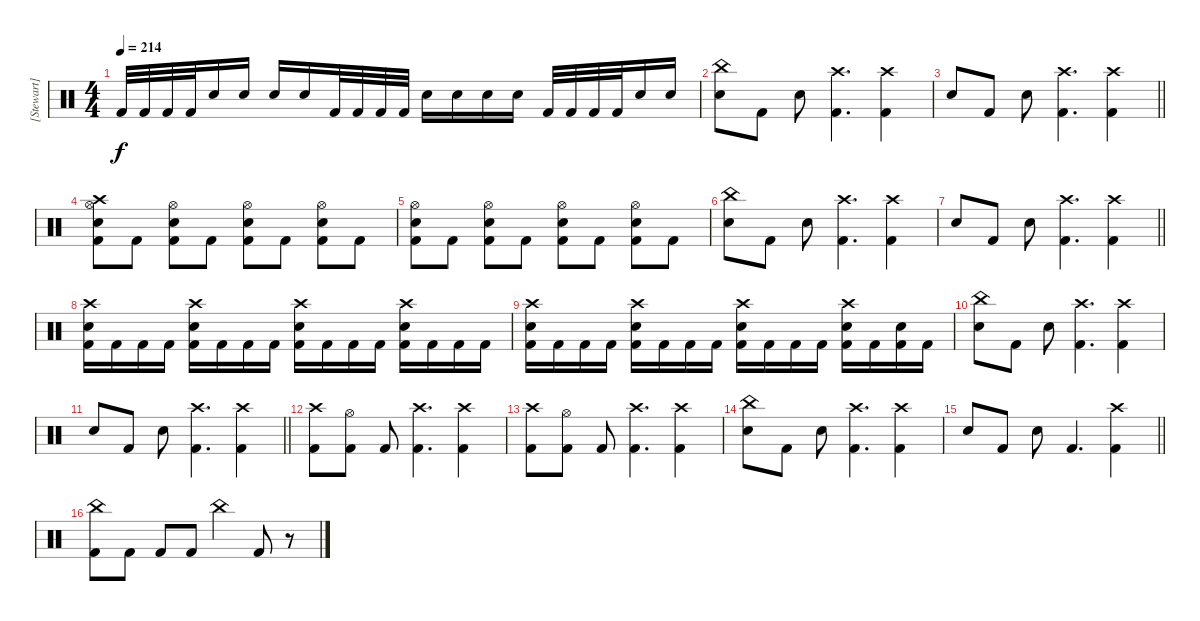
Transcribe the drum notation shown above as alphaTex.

\track ("[Stewart]" "[Stewart]") {instrument percussion}
\staff {score}
\articulation defaults
\ts (4 4)
\tempo 214
\clef neutral
\ks c "Kick (hit) 2".32{dy f} "Kick (hit) 2".32 "Kick (hit) 2".32 "Kick (hit) 2".32 "Electric Snare (hit)".16 "Electric Snare (hit)".16 "Electric Snare (hit)".16 "Electric Snare (hit)".16 "Kick (hit) 2".32 "Kick (hit) 2".32 "Kick (hit) 2".32 "Kick (hit) 2".32 "Electric Snare (hit)".16 "Electric Snare (hit)".16 "Electric Snare (hit)".16 "Electric Snare (hit)".16 "Kick (hit) 2".32 "Kick (hit) 2".32 "Kick (hit) 2".32 "Kick (hit) 2".32 "Electric Snare (hit)".16 "Electric Snare (hit)".16
|
("China (hit)" "Electric Snare (hit)").8 "Kick (hit) 2".8 "Electric Snare (hit)".8 ("Crash high (hit)" "Kick (hit) 2").4{d} ("Crash high (hit)" "Kick (hit) 2").4 |
\barLineRight lightlight "Electric Snare (hit)".8 "Kick (hit) 2".8 "Electric Snare (hit)".8
("Crash high (hit)" "Kick (hit) 2").4{d} ("Crash high (hit)" "Kick (hit) 2").4 |
("Hi-Hat (open)" "Crash high (hit)" "Electric Snare (hit)" "Kick (hit) 2").8 "Kick (hit) 2".8 ("Hi-Hat (open)" "Electric Snare (hit)" "Kick (hit) 2").8 "Kick (hit) 2".8 ("Hi-Hat (open)" "Electric Snare (hit)" "Kick (hit) 2").8 "Kick (hit) 2".8 ("Hi-Hat (open)" "Electric Snare (hit)" "Kick (hit) 2").8 "Kick (hit) 2".8 |
("Hi-Hat (open)" "Electric Snare (hit)" "Kick (hit) 2").8 "Kick (hit) 2".8 ("Hi-Hat (open)" "Electric Snare (hit)" "Kick (hit) 2").8 "Kick (hit) 2".8 ("Hi-Hat (open)" "Electric Snare (hit)" "Kick (hit) 2").8 "Kick (hit) 2".8 ("Hi-Hat (open)" "Electric Snare (hit)" "Kick (hit) 2").8 "Kick (hit) 2".8 |
("China (hit)" "Electric Snare (hit)").8 "Kick (hit) 2".8 "Electric Snare (hit)".8 ("Crash high (hit)" "Kick (hit) 2").4{d} ("Crash high (hit)" "Kick (hit) 2").4 |
\barLineRight lightlight "Electric Snare (hit)".8 "Kick (hit) 2".8 "Electric Snare (hit)".8
("Crash high (hit)" "Kick (hit) 2").4{d} ("Crash high (hit)" "Kick (hit) 2").4 |
("Electric Snare (hit)" "Crash high (hit)" "Kick (hit) 2").16 "Kick (hit) 2".16 "Kick (hit) 2".16 "Kick (hit) 2".16 ("Electric Snare (hit)" "Crash high (hit)" "Kick (hit) 2").16 "Kick (hit) 2".16 "Kick (hit) 2".16 "Kick (hit) 2".16 ("Electric Snare (hit)" "Crash high (hit)" "Kick (hit) 2").16 "Kick (hit) 2".16 "Kick (hit) 2".16 "Kick (hit) 2".16 ("Electric Snare (hit)" "Crash high (hit)" "Kick (hit) 2").16 "Kick (hit) 2".16 "Kick (hit) 2".16 "Kick (hit) 2".16 |
("Electric Snare (hit)" "Crash high (hit)" "Kick (hit) 2").16 "Kick (hit) 2".16 "Kick (hit) 2".16 "Kick (hit) 2".16 ("Electric Snare (hit)" "Crash high (hit)" "Kick (hit) 2").16 "Kick (hit) 2".16 "Kick (hit) 2".16 "Kick (hit) 2".16 ("Electric Snare (hit)" "Crash high (hit)" "Kick (hit) 2").16 "Kick (hit) 2".16 "Kick (hit) 2".16 "Kick (hit) 2".16 ("Electric Snare (hit)" "Crash high (hit)" "Kick (hit) 2").16 "Kick (hit) 2".16 ("Electric Snare (hit)" "Kick (hit) 2").16 "Kick (hit) 2".16 |
("China (hit)" "Electric Snare (hit)").8 "Kick (hit) 2".8 "Electric Snare (hit)".8 ("Crash high (hit)" "Kick (hit) 2").4{d} ("Crash high (hit)" "Kick (hit) 2").4 |
\barLineRight lightlight "Electric Snare (hit)".8 "Kick (hit) 2".8 "Electric Snare (hit)".8
("Crash high (hit)" "Kick (hit) 2").4{d} ("Crash high (hit)" "Kick (hit) 2").4 |
("Crash high (hit)" "Kick (hit) 2").8 ("Hi-Hat (open)" "Kick (hit) 2").8 "Kick (hit) 2".8 ("Crash high (hit)" "Kick (hit) 2").4{d} ("Crash high (hit)" "Kick (hit) 2").4 |
("Crash high (hit)" "Kick (hit) 2").8 ("Hi-Hat (open)" "Kick (hit) 2").8 "Kick (hit) 2".8 ("Crash high (hit)" "Kick (hit) 2").4{d} ("Crash high (hit)" "Kick (hit) 2").4 |
("China (hit)" "Electric Snare (hit)").8 "Kick (hit) 2".8 "Electric Snare (hit)".8 ("Crash high (hit)" "Kick (hit) 2").4{d} ("Crash high (hit)" "Kick (hit) 2").4 |
\barLineRight lightlight "Electric Snare (hit)".8 "Kick (hit) 2".8 "Electric Snare (hit)".8 "Kick (hit) 2".4{d}
("Crash high (hit)" "Kick (hit) 2").4 |
("China (hit)" "Kick (hit) 2").8 "Kick (hit) 2".8 "Kick (hit) 2".8 "Kick (hit) 2".8 "China (hit)".4 "Kick (hit) 2".8 r.8
